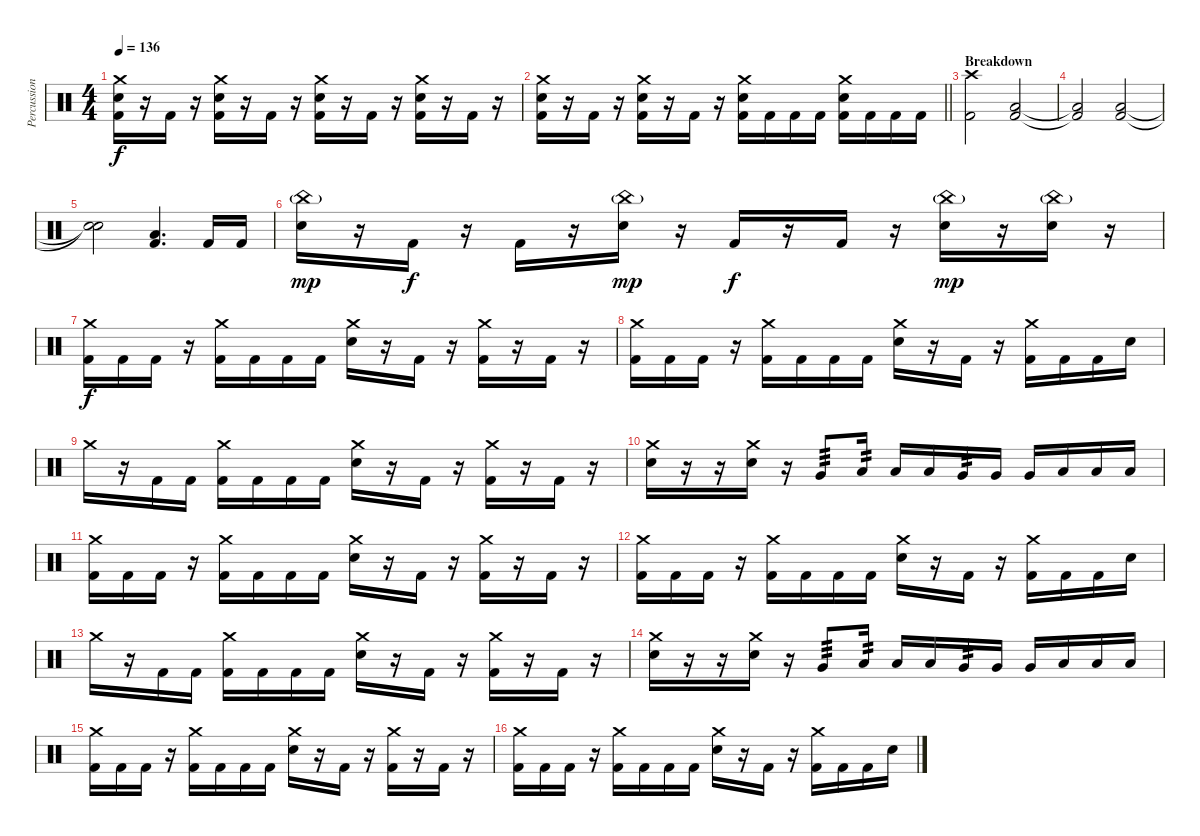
\track ("Percussion" "Percussion") {instrument percussion}
\staff {score}
\articulation defaults
\ts (4 4)
\tempo 136
\clef neutral
\ks c
("Crash medium (hit)" "Electric Snare (hit)" "Kick (hit) 2").16{dy f} r.16 "Kick (hit) 2".16 r.16 ("Crash medium (hit)" "Electric Snare (hit)" "Kick (hit) 2").16 r.16 "Kick (hit) 2".16 r.16 ("Crash medium (hit)" "Electric Snare (hit)" "Kick (hit) 2").16 r.16 "Kick (hit) 2".16 r.16 ("Crash medium (hit)" "Electric Snare (hit)" "Kick (hit) 2").16 r.16 "Kick (hit) 2".16 r.16 |
\barLineRight lightlight
("Crash medium (hit)" "Electric Snare (hit)" "Kick (hit) 2").16 r.16 "Kick (hit) 2".16 r.16 ("Crash medium (hit)" "Electric Snare (hit)" "Kick (hit) 2").16 r.16 "Kick (hit) 2".16 r.16 ("Crash medium (hit)" "Electric Snare (hit)" "Kick (hit) 2").16 "Kick (hit) 2".16 "Kick (hit) 2".16 "Kick (hit) 2".16 ("Crash medium (hit)" "Electric Snare (hit)" "Kick (hit) 2").16 "Kick (hit) 2".16 "Kick (hit) 2".16 "Kick (hit) 2".16 |
\section ("" "Breakdown")
("Crash high (hit)" "Kick (hit) 2").2 ("Low Floor Tom (hit)" "Kick (hit) 2").2 |
("Low Floor Tom (hit)"{t} "Kick (hit) 2"{t}).2 ("Low Floor Tom (hit)" "Kick (hit) 2").2 |
("Snare (hit)"{t} "Snare (hit)"{t}).2 ("Low Floor Tom (hit)" "Kick (hit) 2").4{d} "Kick (hit) 2".16 "Kick (hit) 2".16 |
("China (hit)"{g} "Electric Snare (hit)").16{dy mp} r.16 "Kick (hit) 2".16{dy f} r.16 "Kick (hit) 2".16 r.16 ("China (hit)"{g} "Electric Snare (hit)").16{dy mp} r.16 "Kick (hit) 2".16{dy f} r.16 "Kick (hit) 2".16 r.16 ("China (hit)"{g} "Electric Snare (hit)").16{dy mp} r.16 ("China (hit)"{g} "Electric Snare (hit)").16 r.16 |
("Crash medium (hit)" "Kick (hit) 2").16{dy f} "Kick (hit) 2".16 "Kick (hit) 2".16 r.16 ("Crash medium (hit)" "Kick (hit) 2").16 "Kick (hit) 2".16 "Kick (hit) 2".16 "Kick (hit) 2".16 ("Crash medium (hit)" "Electric Snare (hit)").16 r.16 "Kick (hit) 2".16 r.16 ("Crash medium (hit)" "Kick (hit) 2").16 r.16 "Kick (hit) 2".16 r.16 |
("Crash medium (hit)" "Kick (hit) 2").16 "Kick (hit) 2".16 "Kick (hit) 2".16 r.16 ("Crash medium (hit)" "Kick (hit) 2").16 "Kick (hit) 2".16 "Kick (hit) 2".16 "Kick (hit) 2".16 ("Crash medium (hit)" "Electric Snare (hit)").16 r.16 "Kick (hit) 2".16 r.16 ("Crash medium (hit)" "Kick (hit) 2").16 "Kick (hit) 2".16 "Kick (hit) 2".16 "Electric Snare (hit)".16 |
"Crash medium (hit)".16 r.16 "Kick (hit) 2".16 "Kick (hit) 2".16 ("Crash medium (hit)" "Kick (hit) 2").16 "Kick (hit) 2".16 "Kick (hit) 2".16 "Kick (hit) 2".16 ("Crash medium (hit)" "Electric Snare (hit)").16 r.16 "Kick (hit) 2".16 r.16 ("Crash medium (hit)" "Kick (hit) 2").16 r.16 "Kick (hit) 2".16 r.16 |
("Crash medium (hit)" "Electric Snare (hit)").16 r.16 r.16 ("Crash medium (hit)" "Electric Snare (hit)").16 r.16 "Very Low Tom (hit)".8{tp 3} "Low Tom (hit)".16{tp 2} "Low Tom (hit)".16 "Low Tom (hit)".16 "Very Low Tom (hit)".16{tp 2} "Very Low Tom (hit)".16 "Very Low Tom (hit)".16 "Low Floor Tom (hit)".16 "Low Floor Tom (hit)".16 "Low Floor Tom (hit)".16 |
("Crash medium (hit)" "Kick (hit) 2").16 "Kick (hit) 2".16 "Kick (hit) 2".16 r.16 ("Crash medium (hit)" "Kick (hit) 2").16 "Kick (hit) 2".16 "Kick (hit) 2".16 "Kick (hit) 2".16 ("Crash medium (hit)" "Electric Snare (hit)").16 r.16 "Kick (hit) 2".16 r.16 ("Crash medium (hit)" "Kick (hit) 2").16 r.16 "Kick (hit) 2".16 r.16 |
("Crash medium (hit)" "Kick (hit) 2").16 "Kick (hit) 2".16 "Kick (hit) 2".16 r.16 ("Crash medium (hit)" "Kick (hit) 2").16 "Kick (hit) 2".16 "Kick (hit) 2".16 "Kick (hit) 2".16 ("Crash medium (hit)" "Electric Snare (hit)").16 r.16 "Kick (hit) 2".16 r.16 ("Crash medium (hit)" "Kick (hit) 2").16 "Kick (hit) 2".16 "Kick (hit) 2".16 "Electric Snare (hit)".16 |
"Crash medium (hit)".16 r.16 "Kick (hit) 2".16 "Kick (hit) 2".16 ("Crash medium (hit)" "Kick (hit) 2").16 "Kick (hit) 2".16 "Kick (hit) 2".16 "Kick (hit) 2".16 ("Crash medium (hit)" "Electric Snare (hit)").16 r.16 "Kick (hit) 2".16 r.16 ("Crash medium (hit)" "Kick (hit) 2").16 r.16 "Kick (hit) 2".16 r.16 |
("Crash medium (hit)" "Electric Snare (hit)").16 r.16 r.16 ("Crash medium (hit)" "Electric Snare (hit)").16 r.16 "Very Low Tom (hit)".8{tp 3} "Low Tom (hit)".16{tp 2} "Low Tom (hit)".16 "Low Tom (hit)".16 "Very Low Tom (hit)".16{tp 2} "Very Low Tom (hit)".16 "Very Low Tom (hit)".16 "Low Floor Tom (hit)".16 "Low Floor Tom (hit)".16 "Low Floor Tom (hit)".16 |
("Crash medium (hit)" "Kick (hit) 2").16 "Kick (hit) 2".16 "Kick (hit) 2".16 r.16 ("Crash medium (hit)" "Kick (hit) 2").16 "Kick (hit) 2".16 "Kick (hit) 2".16 "Kick (hit) 2".16 ("Crash medium (hit)" "Electric Snare (hit)").16 r.16 "Kick (hit) 2".16 r.16 ("Crash medium (hit)" "Kick (hit) 2").16 r.16 "Kick (hit) 2".16 r.16 |
("Crash medium (hit)" "Kick (hit) 2").16 "Kick (hit) 2".16 "Kick (hit) 2".16 r.16 ("Crash medium (hit)" "Kick (hit) 2").16 "Kick (hit) 2".16 "Kick (hit) 2".16 "Kick (hit) 2".16 ("Crash medium (hit)" "Electric Snare (hit)").16 r.16 "Kick (hit) 2".16 r.16 ("Crash medium (hit)" "Kick (hit) 2").16 "Kick (hit) 2".16 "Kick (hit) 2".16 "Electric Snare (hit)".16
